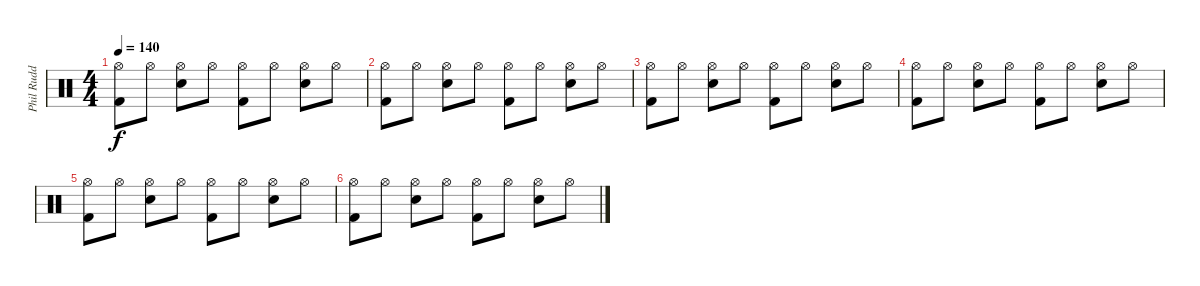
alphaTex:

\track ("Phil Rudd" "Phil Rudd") {instrument percussion}
\staff {score}
\articulation defaults
\ts (4 4)
\tempo 140
\clef neutral
\ks c
("Hi-Hat (open)" "Kick (hit) 2").8{dy f} "Hi-Hat (open)".8 ("Hi-Hat (open)" "Snare (hit) 2").8 "Hi-Hat (open)".8 ("Hi-Hat (open)" "Kick (hit) 2").8 "Hi-Hat (open)".8 ("Hi-Hat (open)" "Snare (hit) 2").8 "Hi-Hat (open)".8 |
("Hi-Hat (open)" "Kick (hit) 2").8 "Hi-Hat (open)".8 ("Hi-Hat (open)" "Snare (hit) 2").8 "Hi-Hat (open)".8 ("Hi-Hat (open)" "Kick (hit) 2").8 "Hi-Hat (open)".8 ("Hi-Hat (open)" "Snare (hit) 2").8 "Hi-Hat (open)".8 |
("Hi-Hat (open)" "Kick (hit) 2").8 "Hi-Hat (open)".8 ("Hi-Hat (open)" "Snare (hit) 2").8 "Hi-Hat (open)".8 ("Hi-Hat (open)" "Kick (hit) 2").8 "Hi-Hat (open)".8 ("Hi-Hat (open)" "Snare (hit) 2").8 "Hi-Hat (open)".8 |
("Hi-Hat (open)" "Kick (hit) 2").8 "Hi-Hat (open)".8 ("Hi-Hat (open)" "Snare (hit) 2").8 "Hi-Hat (open)".8 ("Hi-Hat (open)" "Kick (hit) 2").8 "Hi-Hat (open)".8 ("Hi-Hat (open)" "Snare (hit) 2").8 "Hi-Hat (open)".8 |
("Hi-Hat (open)" "Kick (hit) 2").8 "Hi-Hat (open)".8 ("Hi-Hat (open)" "Snare (hit) 2").8 "Hi-Hat (open)".8 ("Hi-Hat (open)" "Kick (hit) 2").8 "Hi-Hat (open)".8 ("Hi-Hat (open)" "Snare (hit) 2").8 "Hi-Hat (open)".8 |
("Hi-Hat (open)" "Kick (hit) 2").8 "Hi-Hat (open)".8 ("Hi-Hat (open)" "Snare (hit) 2").8 "Hi-Hat (open)".8 ("Hi-Hat (open)" "Kick (hit) 2").8 "Hi-Hat (open)".8 ("Hi-Hat (open)" "Snare (hit) 2").8 "Hi-Hat (open)".8
